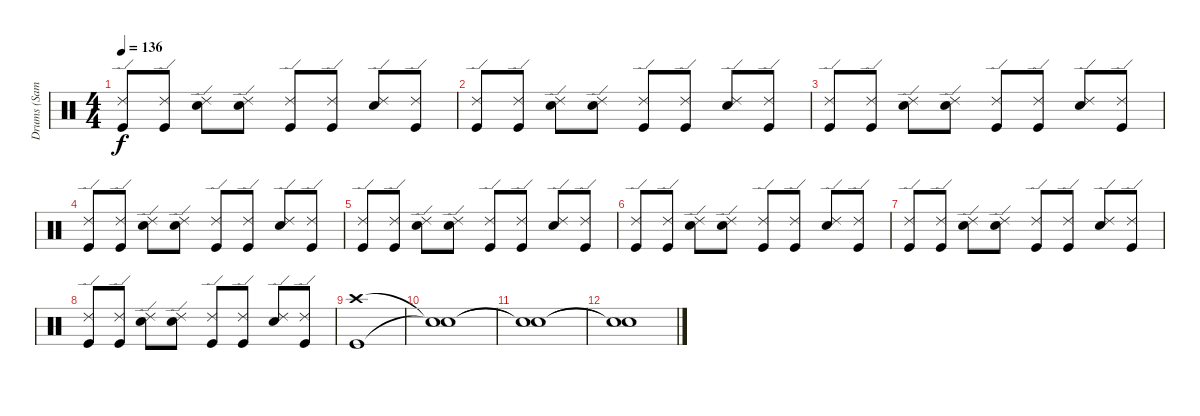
\track ("Drums (Sam)" "Drums (Sam") {instrument percussion}
\staff {score}
\articulation defaults
\ts (4 4)
\tempo 136
\clef neutral
\ks c
("Ride (edge) 2" "Kick (hit)").8{dy f} ("Ride (edge) 2" "Kick (hit)").8 ("Ride (edge) 2" "Snare (hit) 2").8 ("Ride (edge) 2" "Snare (hit) 2").8 ("Ride (edge) 2" "Kick (hit)").8 ("Ride (edge) 2" "Kick (hit)").8 ("Ride (edge) 2" "Snare (hit) 2").8 ("Ride (edge) 2" "Kick (hit)").8 |
("Ride (edge) 2" "Kick (hit)").8 ("Ride (edge) 2" "Kick (hit)").8 ("Ride (edge) 2" "Snare (hit) 2").8 ("Ride (edge) 2" "Snare (hit) 2").8 ("Ride (edge) 2" "Kick (hit)").8 ("Ride (edge) 2" "Kick (hit)").8 ("Ride (edge) 2" "Snare (hit) 2").8 ("Ride (edge) 2" "Kick (hit)").8 |
("Ride (edge) 2" "Kick (hit)").8 ("Ride (edge) 2" "Kick (hit)").8 ("Ride (edge) 2" "Snare (hit) 2").8 ("Ride (edge) 2" "Snare (hit) 2").8 ("Ride (edge) 2" "Kick (hit)").8 ("Ride (edge) 2" "Kick (hit)").8 ("Ride (edge) 2" "Snare (hit) 2").8 ("Ride (edge) 2" "Kick (hit)").8 |
("Ride (edge) 2" "Kick (hit)").8 ("Ride (edge) 2" "Kick (hit)").8 ("Ride (edge) 2" "Snare (hit) 2").8 ("Ride (edge) 2" "Snare (hit) 2").8 ("Ride (edge) 2" "Kick (hit)").8 ("Ride (edge) 2" "Kick (hit)").8 ("Ride (edge) 2" "Snare (hit) 2").8 ("Ride (edge) 2" "Kick (hit)").8 |
("Ride (edge) 2" "Kick (hit)").8 ("Ride (edge) 2" "Kick (hit)").8 ("Ride (edge) 2" "Snare (hit) 2").8 ("Ride (edge) 2" "Snare (hit) 2").8 ("Ride (edge) 2" "Kick (hit)").8 ("Ride (edge) 2" "Kick (hit)").8 ("Ride (edge) 2" "Snare (hit) 2").8 ("Ride (edge) 2" "Kick (hit)").8 |
("Ride (edge) 2" "Kick (hit)").8 ("Ride (edge) 2" "Kick (hit)").8 ("Ride (edge) 2" "Snare (hit) 2").8 ("Ride (edge) 2" "Snare (hit) 2").8 ("Ride (edge) 2" "Kick (hit)").8 ("Ride (edge) 2" "Kick (hit)").8 ("Ride (edge) 2" "Snare (hit) 2").8 ("Ride (edge) 2" "Kick (hit)").8 |
("Ride (edge) 2" "Kick (hit)").8 ("Ride (edge) 2" "Kick (hit)").8 ("Ride (edge) 2" "Snare (hit) 2").8 ("Ride (edge) 2" "Snare (hit) 2").8 ("Ride (edge) 2" "Kick (hit)").8 ("Ride (edge) 2" "Kick (hit)").8 ("Ride (edge) 2" "Snare (hit) 2").8 ("Ride (edge) 2" "Kick (hit)").8 |
("Ride (edge) 2" "Kick (hit)").8 ("Ride (edge) 2" "Kick (hit)").8 ("Ride (edge) 2" "Snare (hit) 2").8 ("Ride (edge) 2" "Snare (hit) 2").8 ("Ride (edge) 2" "Kick (hit)").8 ("Ride (edge) 2" "Kick (hit)").8 ("Ride (edge) 2" "Snare (hit) 2").8 ("Ride (edge) 2" "Kick (hit)").8 |
("Crash high (hit)" "Kick (hit)").1 |
("Snare (hit)"{t} "Snare (hit)"{t}).1 |
("Snare (hit)"{t} "Snare (hit)"{t}).1 |
("Snare (hit)"{t} "Snare (hit)"{t}).1
